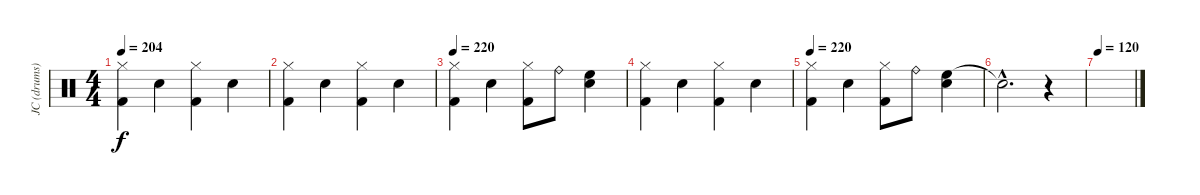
\track ("JC (drums)" "JC (drums)") {instrument percussion}
\staff {score}
\articulation defaults
\ts (4 4)
\tempo 204
\clef neutral
\ks c
("Hi-Hat (closed)" "Kick (hit) 2").4{dy f} "Electric Snare (hit)".4 ("Hi-Hat (closed)" "Kick (hit) 2").4 "Snare (hit) 2".4 |
("Hi-Hat (closed)" "Kick (hit) 2").4 "Electric Snare (hit)".4 ("Hi-Hat (closed)" "Kick (hit) 2").4 "Snare (hit) 2".4 |
\tempo 220
("Hi-Hat (closed)" "Kick (hit) 2").4 "Electric Snare (hit)".4 ("Hi-Hat (closed)" "Kick (hit) 2").8 "Ride (bell)".8 ("High Floor Tom (hit)" "Snare (hit) 2").4 |
("Hi-Hat (closed)" "Kick (hit) 2").4 "Electric Snare (hit)".4 ("Hi-Hat (closed)" "Kick (hit) 2").4 "Snare (hit) 2".4 |
\tempo 220
("Hi-Hat (closed)" "Kick (hit) 2").4 "Electric Snare (hit)".4 ("Hi-Hat (closed)" "Kick (hit) 2").8 "Ride (bell)".8 ("High Floor Tom (hit)" "Snare (hit) 2").4 |
"Snare (hit)"{hac t}.2{d} r.4 |
\tempo 120
